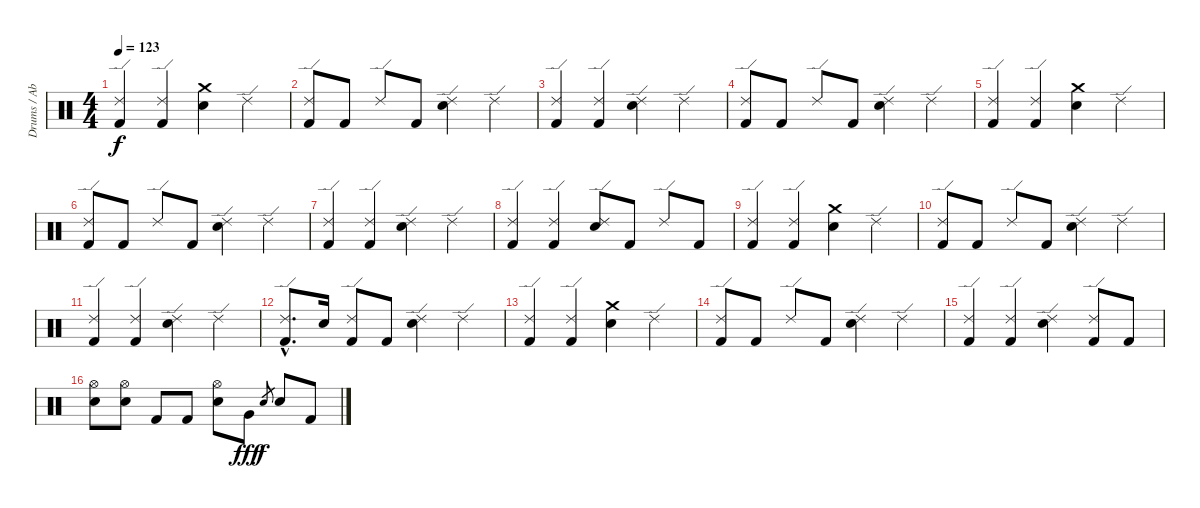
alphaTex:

\track ("Drums / Abe Cunningham" "Drums / Ab") {instrument percussion}
\staff {score}
\articulation defaults
\ts (4 4)
\tempo 123
\clef neutral
\ks c
("Ride (edge) 2" "Kick (hit) 2").4{dy f} ("Ride (edge) 2" "Kick (hit) 2").4 ("Crash medium (hit)" "Electric Snare (hit)").4 "Ride (edge) 2".4 |
("Ride (edge) 2" "Kick (hit) 2").8 "Kick (hit) 2".8 "Ride (edge) 2".8 "Kick (hit) 2".8 ("Ride (edge) 2" "Electric Snare (hit)").4 "Ride (edge) 2".4 |
("Ride (edge) 2" "Kick (hit) 2").4 ("Ride (edge) 2" "Kick (hit) 2").4 ("Ride (edge) 2" "Electric Snare (hit)").4 "Ride (edge) 2".4 |
("Ride (edge) 2" "Kick (hit) 2").8 "Kick (hit) 2".8 "Ride (edge) 2".8 "Kick (hit) 2".8 ("Ride (edge) 2" "Electric Snare (hit)").4 "Ride (edge) 2".4 |
("Ride (edge) 2" "Kick (hit) 2").4 ("Ride (edge) 2" "Kick (hit) 2").4 ("Crash medium (hit)" "Electric Snare (hit)").4 "Ride (edge) 2".4 |
("Ride (edge) 2" "Kick (hit) 2").8 "Kick (hit) 2".8 "Ride (edge) 2".8 "Kick (hit) 2".8 ("Ride (edge) 2" "Electric Snare (hit)").4 "Ride (edge) 2".4 |
("Ride (edge) 2" "Kick (hit) 2").4 ("Ride (edge) 2" "Kick (hit) 2").4 ("Ride (edge) 2" "Electric Snare (hit)").4 "Ride (edge) 2".4 |
("Ride (edge) 2" "Kick (hit) 2").4 ("Ride (edge) 2" "Kick (hit) 2").4 ("Ride (edge) 2" "Electric Snare (hit)").8 "Kick (hit) 2".8 "Ride (edge) 2".8 "Kick (hit) 2".8 |
("Ride (edge) 2" "Kick (hit) 2").4 ("Ride (edge) 2" "Kick (hit) 2").4 ("Crash medium (hit)" "Electric Snare (hit)").4 "Ride (edge) 2".4 |
("Ride (edge) 2" "Kick (hit) 2").8 "Kick (hit) 2".8 "Ride (edge) 2".8 "Kick (hit) 2".8 ("Ride (edge) 2" "Electric Snare (hit)").4 "Ride (edge) 2".4 |
("Ride (edge) 2" "Kick (hit) 2").4 ("Ride (edge) 2" "Kick (hit) 2").4 ("Ride (edge) 2" "Electric Snare (hit)").4 "Ride (edge) 2".4 |
("Ride (edge) 2"{hac} "Kick (hit) 2"{hac}).8{d} "Electric Snare (hit)".16 ("Ride (edge) 2" "Kick (hit) 2").8 "Kick (hit) 2".8 ("Ride (edge) 2" "Electric Snare (hit)").4 "Ride (edge) 2".4 |
("Ride (edge) 2" "Kick (hit) 2").4 ("Ride (edge) 2" "Kick (hit) 2").4 ("Crash medium (hit)" "Electric Snare (hit)").4 "Ride (edge) 2".4 |
("Ride (edge) 2" "Kick (hit) 2").8 "Kick (hit) 2".8 "Ride (edge) 2".8 "Kick (hit) 2".8 ("Ride (edge) 2" "Electric Snare (hit)").4 "Ride (edge) 2".4 |
("Ride (edge) 2" "Kick (hit) 2").4 ("Ride (edge) 2" "Kick (hit) 2").4 ("Ride (edge) 2" "Electric Snare (hit)").4 ("Ride (edge) 2" "Kick (hit) 2").8 "Kick (hit) 2".8 |
("Hi-Hat (open)" "Electric Snare (hit)").8 ("Hi-Hat (open)" "Electric Snare (hit)").8 "Kick (hit) 2".8 "Kick (hit) 2".8 ("Hi-Hat (open)" "Electric Snare (hit)").8 "Very Low Tom (hit)".8{dy fff} "Electric Snare (hit)".8{gr dy f} "Electric Snare (hit)".8 "Kick (hit) 2".8
